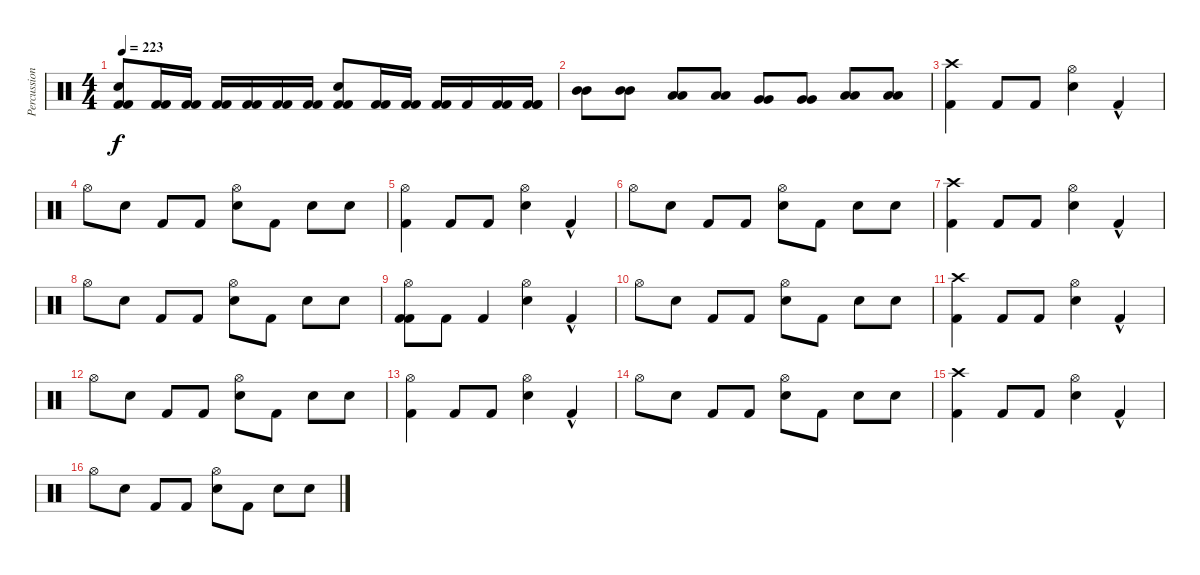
\track ("Percussion" "Percussion") {instrument percussion}
\staff {score}
\articulation defaults
\ts (4 4)
\tempo 223
\clef neutral
\ks c
("Electric Snare (hit)" "Kick (hit) 2" "Kick (hit) 2").8{dy f} ("Kick (hit) 2" "Kick (hit) 2").16 ("Kick (hit) 2" "Kick (hit) 2").16 ("Kick (hit) 2" "Kick (hit) 2").16 ("Kick (hit) 2" "Kick (hit) 2").16 ("Kick (hit) 2" "Kick (hit) 2").16 ("Kick (hit) 2" "Kick (hit) 2").16 ("Electric Snare (hit)" "Kick (hit) 2" "Kick (hit) 2").8 ("Kick (hit) 2" "Kick (hit) 2").16 ("Kick (hit) 2" "Kick (hit) 2").16 ("Kick (hit) 2" "Kick (hit) 2").16 "Kick (hit) 2".16 ("Kick (hit) 2" "Kick (hit) 2").16 ("Kick (hit) 2" "Kick (hit) 2" "Kick (hit) 2").16 |
("Mid Tom (hit)" "Mid Tom (hit)").8 ("Mid Tom (hit)" "Mid Tom (hit)").8 ("Low Tom (hit)" "Low Tom (hit)").8 ("Low Tom (hit)" "Low Tom (hit)").8 ("Very Low Tom (hit)" "Very Low Tom (hit)").8 ("Very Low Tom (hit)" "Very Low Tom (hit)").8 ("Low Floor Tom (hit)" "Low Floor Tom (hit)").8 ("Low Floor Tom (hit)" "Low Floor Tom (hit)").8 |
("Crash high (hit)" "Kick (hit) 2").4 "Kick (hit) 2".8 "Kick (hit) 2".8 ("Hi-Hat (open)" "Electric Snare (hit)").4 "Kick (hit) 2"{hac}.4 |
"Hi-Hat (open)".8 "Electric Snare (hit)".8 "Kick (hit) 2".8 "Kick (hit) 2".8 ("Hi-Hat (open)" "Electric Snare (hit)").8 "Kick (hit) 2".8 "Electric Snare (hit)".8 "Electric Snare (hit)".8 |
("Hi-Hat (open)" "Kick (hit) 2").4 "Kick (hit) 2".8 "Kick (hit) 2".8 ("Hi-Hat (open)" "Electric Snare (hit)").4 "Kick (hit) 2"{hac}.4 |
"Hi-Hat (open)".8 "Electric Snare (hit)".8 "Kick (hit) 2".8 "Kick (hit) 2".8 ("Hi-Hat (open)" "Electric Snare (hit)").8 "Kick (hit) 2".8 "Electric Snare (hit)".8 "Electric Snare (hit)".8 |
("Crash high (hit)" "Kick (hit) 2").4 "Kick (hit) 2".8 "Kick (hit) 2".8 ("Hi-Hat (open)" "Electric Snare (hit)").4 "Kick (hit) 2"{hac}.4 |
"Hi-Hat (open)".8 "Electric Snare (hit)".8 "Kick (hit) 2".8 "Kick (hit) 2".8 ("Hi-Hat (open)" "Electric Snare (hit)").8 "Kick (hit) 2".8 "Electric Snare (hit)".8 "Electric Snare (hit)".8 |
("Hi-Hat (open)" "Kick (hit) 2" "Kick (hit) 2").8 "Kick (hit) 2".8 "Kick (hit) 2".4 ("Hi-Hat (open)" "Electric Snare (hit)").4 "Kick (hit) 2"{hac}.4 |
"Hi-Hat (open)".8 "Electric Snare (hit)".8 "Kick (hit) 2".8 "Kick (hit) 2".8 ("Hi-Hat (open)" "Electric Snare (hit)").8 "Kick (hit) 2".8 "Electric Snare (hit)".8 "Electric Snare (hit)".8 |
("Crash high (hit)" "Kick (hit) 2").4 "Kick (hit) 2".8 "Kick (hit) 2".8 ("Hi-Hat (open)" "Electric Snare (hit)").4 "Kick (hit) 2"{hac}.4 |
"Hi-Hat (open)".8 "Electric Snare (hit)".8 "Kick (hit) 2".8 "Kick (hit) 2".8 ("Hi-Hat (open)" "Electric Snare (hit)").8 "Kick (hit) 2".8 "Electric Snare (hit)".8 "Electric Snare (hit)".8 |
("Hi-Hat (open)" "Kick (hit) 2").4 "Kick (hit) 2".8 "Kick (hit) 2".8 ("Hi-Hat (open)" "Electric Snare (hit)").4 "Kick (hit) 2"{hac}.4 |
"Hi-Hat (open)".8 "Electric Snare (hit)".8 "Kick (hit) 2".8 "Kick (hit) 2".8 ("Hi-Hat (open)" "Electric Snare (hit)").8 "Kick (hit) 2".8 "Electric Snare (hit)".8 "Electric Snare (hit)".8 |
("Crash high (hit)" "Kick (hit) 2").4 "Kick (hit) 2".8 "Kick (hit) 2".8 ("Hi-Hat (open)" "Electric Snare (hit)").4 "Kick (hit) 2"{hac}.4 |
"Hi-Hat (open)".8 "Electric Snare (hit)".8 "Kick (hit) 2".8 "Kick (hit) 2".8 ("Hi-Hat (open)" "Electric Snare (hit)").8 "Kick (hit) 2".8 "Electric Snare (hit)".8 "Electric Snare (hit)".8
